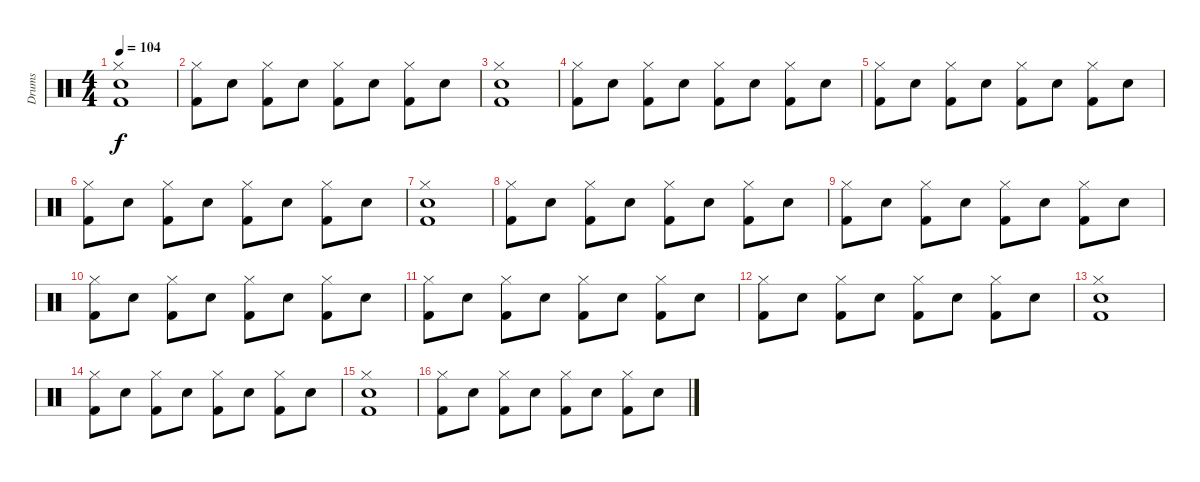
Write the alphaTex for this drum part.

\track ("Drums" "Drums") {instrument percussion}
\staff {score}
\articulation defaults
\ts (4 4)
\tempo 104
\clef neutral
\ks c
("Hi-Hat (closed)" "Snare (hit) 2" "Kick (hit) 2").1{dy f} |
("Hi-Hat (closed)" "Kick (hit) 2").8 "Snare (hit) 2".8 ("Hi-Hat (closed)" "Kick (hit) 2").8 "Snare (hit) 2".8 ("Hi-Hat (closed)" "Kick (hit) 2").8 "Snare (hit) 2".8 ("Hi-Hat (closed)" "Kick (hit) 2").8 "Snare (hit) 2".8 |
("Hi-Hat (closed)" "Snare (hit) 2" "Kick (hit) 2").1 |
("Hi-Hat (closed)" "Kick (hit) 2").8 "Snare (hit) 2".8 ("Hi-Hat (closed)" "Kick (hit) 2").8 "Snare (hit) 2".8 ("Hi-Hat (closed)" "Kick (hit) 2").8 "Snare (hit) 2".8 ("Hi-Hat (closed)" "Kick (hit) 2").8 "Snare (hit) 2".8 |
("Hi-Hat (closed)" "Kick (hit) 2").8 "Snare (hit) 2".8 ("Hi-Hat (closed)" "Kick (hit) 2").8 "Snare (hit) 2".8 ("Hi-Hat (closed)" "Kick (hit) 2").8 "Snare (hit) 2".8 ("Hi-Hat (closed)" "Kick (hit) 2").8 "Snare (hit) 2".8 |
("Hi-Hat (closed)" "Kick (hit) 2").8 "Snare (hit) 2".8 ("Hi-Hat (closed)" "Kick (hit) 2").8 "Snare (hit) 2".8 ("Hi-Hat (closed)" "Kick (hit) 2").8 "Snare (hit) 2".8 ("Hi-Hat (closed)" "Kick (hit) 2").8 "Snare (hit) 2".8 |
("Hi-Hat (closed)" "Snare (hit) 2" "Kick (hit) 2").1 |
("Hi-Hat (closed)" "Kick (hit) 2").8 "Snare (hit) 2".8 ("Hi-Hat (closed)" "Kick (hit) 2").8 "Snare (hit) 2".8 ("Hi-Hat (closed)" "Kick (hit) 2").8 "Snare (hit) 2".8 ("Hi-Hat (closed)" "Kick (hit) 2").8 "Snare (hit) 2".8 |
("Hi-Hat (closed)" "Kick (hit) 2").8 "Snare (hit) 2".8 ("Hi-Hat (closed)" "Kick (hit) 2").8 "Snare (hit) 2".8 ("Hi-Hat (closed)" "Kick (hit) 2").8 "Snare (hit) 2".8 ("Hi-Hat (closed)" "Kick (hit) 2").8 "Snare (hit) 2".8 |
("Hi-Hat (closed)" "Kick (hit) 2").8 "Snare (hit) 2".8 ("Hi-Hat (closed)" "Kick (hit) 2").8 "Snare (hit) 2".8 ("Hi-Hat (closed)" "Kick (hit) 2").8 "Snare (hit) 2".8 ("Hi-Hat (closed)" "Kick (hit) 2").8 "Snare (hit) 2".8 |
("Hi-Hat (closed)" "Kick (hit) 2").8 "Snare (hit) 2".8 ("Hi-Hat (closed)" "Kick (hit) 2").8 "Snare (hit) 2".8 ("Hi-Hat (closed)" "Kick (hit) 2").8 "Snare (hit) 2".8 ("Hi-Hat (closed)" "Kick (hit) 2").8 "Snare (hit) 2".8 |
("Hi-Hat (closed)" "Kick (hit) 2").8 "Snare (hit) 2".8 ("Hi-Hat (closed)" "Kick (hit) 2").8 "Snare (hit) 2".8 ("Hi-Hat (closed)" "Kick (hit) 2").8 "Snare (hit) 2".8 ("Hi-Hat (closed)" "Kick (hit) 2").8 "Snare (hit) 2".8 |
("Hi-Hat (closed)" "Snare (hit) 2" "Kick (hit) 2").1 |
("Hi-Hat (closed)" "Kick (hit) 2").8 "Snare (hit) 2".8 ("Hi-Hat (closed)" "Kick (hit) 2").8 "Snare (hit) 2".8 ("Hi-Hat (closed)" "Kick (hit) 2").8 "Snare (hit) 2".8 ("Hi-Hat (closed)" "Kick (hit) 2").8 "Snare (hit) 2".8 |
("Hi-Hat (closed)" "Snare (hit) 2" "Kick (hit) 2").1 |
("Hi-Hat (closed)" "Kick (hit) 2").8 "Snare (hit) 2".8 ("Hi-Hat (closed)" "Kick (hit) 2").8 "Snare (hit) 2".8 ("Hi-Hat (closed)" "Kick (hit) 2").8 "Snare (hit) 2".8 ("Hi-Hat (closed)" "Kick (hit) 2").8 "Snare (hit) 2".8
